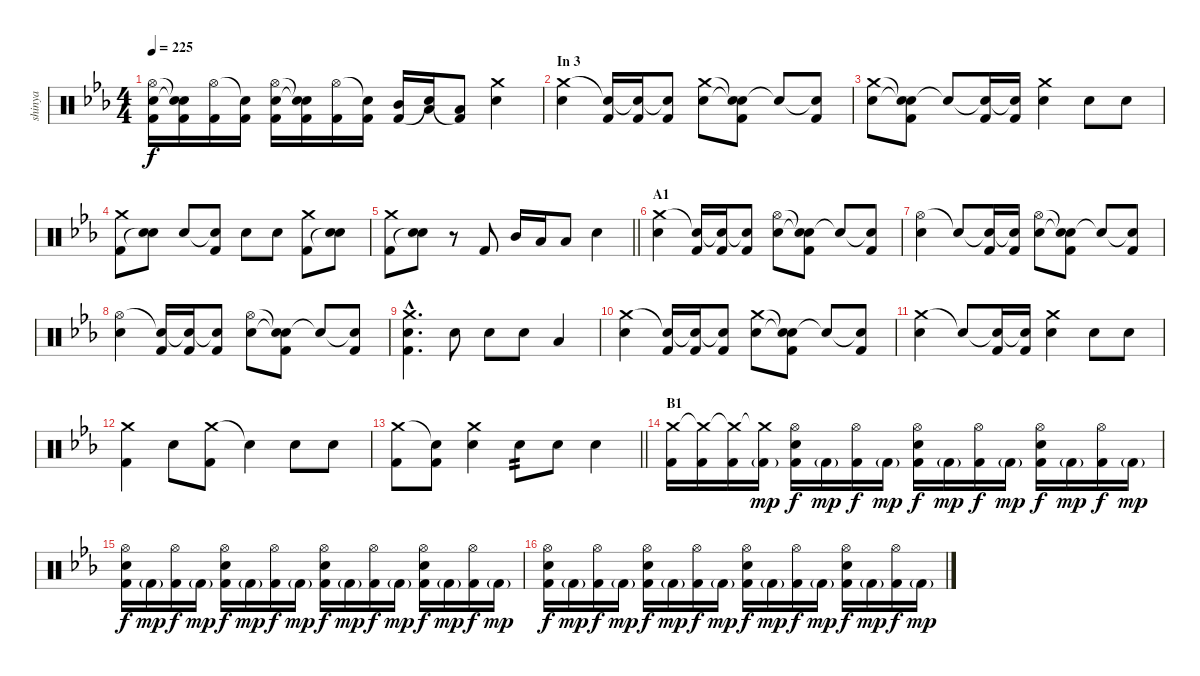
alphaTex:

\track ("shinya" "shinya") {instrument percussion}
\staff {score}
\articulation defaults
\ts (4 4)
\tempo 225
\clef neutral
\ks eb
("Hi-Hat (open)" "Electric Snare (hit)" "Kick (hit) 2").16{dy f} ("Snare (hit)"{t} "Snare (hit)"{t} "Kick (hit) 2").16 ("Hi-Hat (open)" "Kick (hit) 2").16 ("Snare (hit)"{t} "Kick (hit) 2").16 ("Hi-Hat (open)" "Electric Snare (hit)" "Kick (hit) 2").16 ("Snare (hit)"{t} "Snare (hit)"{t} "Kick (hit) 2").16 ("Hi-Hat (open)" "Kick (hit) 2").16 ("Snare (hit)"{t} "Kick (hit) 2").16 ("Mid Tom (hit)" "Kick (hit) 2").16 ("Low Tom (hit)" "Snare (hit)"{t}).16 ("Low Floor Tom (hit)" "Kick (hit) 2"{t}).8 ("Crash medium (hit)" "Electric Snare (hit)").4 |
\section ("" "In 3")
("Crash medium (hit)" "Electric Snare (hit)").4 ("Snare (hit)"{t} "Kick (hit) 2").16 ("Snare (hit)"{t} "Kick (hit) 2").16 ("Snare (hit)"{t} "Kick (hit) 2").8 ("Crash medium (hit)" "Electric Snare (hit)").8 ("Snare (hit)"{t} "Snare (hit)"{t} "Kick (hit) 2").8 "Snare (hit)"{t}.8 ("Snare (hit)"{t} "Kick (hit) 2").8 |
("Crash medium (hit)" "Electric Snare (hit)").8 ("Snare (hit)"{t} "Snare (hit)"{t} "Kick (hit) 2").8 "Snare (hit)"{t}.8 ("Snare (hit)"{t} "Kick (hit) 2").16 ("Snare (hit)"{t} "Kick (hit) 2").16 ("Crash medium (hit)" "Electric Snare (hit)").4 "Electric Snare (hit)".8 "Electric Snare (hit)".8 |
("Crash medium (hit)" "Kick (hit) 2").8 ("Electric Snare (hit)" "Snare (hit)"{t}).8 "Electric Snare (hit)".8 ("Snare (hit)"{t} "Kick (hit) 2").8 "Electric Snare (hit)".8 "Electric Snare (hit)".8 ("Crash medium (hit)" "Kick (hit) 2").8 ("Electric Snare (hit)" "Snare (hit)"{t}).8 |
\barLineRight lightlight
("Crash medium (hit)" "Kick (hit) 2").8 ("Electric Snare (hit)" "Snare (hit)"{t}).8 r.8 "Kick (hit) 2".8 "Mid Tom (hit)".16 "Low Tom (hit)".16 "Low Floor Tom (hit)".8 "Electric Snare (hit)".4 |
\section ("" "A1")
("Crash medium (hit)" "Electric Snare (hit)").4 ("Snare (hit)"{t} "Kick (hit) 2").16 ("Snare (hit)"{t} "Kick (hit) 2").16 ("Snare (hit)"{t} "Kick (hit) 2").8 ("Hi-Hat (open)" "Electric Snare (hit)").8 ("Snare (hit)"{t} "Snare (hit)"{t} "Kick (hit) 2").8 "Snare (hit)"{t}.8 ("Snare (hit)"{t} "Kick (hit) 2").8 |
("Hi-Hat (open)" "Electric Snare (hit)").4 "Snare (hit)"{t}.8 ("Snare (hit)"{t} "Kick (hit) 2").16 ("Snare (hit)"{t} "Kick (hit) 2").16 ("Hi-Hat (open)" "Electric Snare (hit)").8 ("Snare (hit)"{t} "Snare (hit)"{t} "Kick (hit) 2").8 "Snare (hit)"{t}.8 ("Snare (hit)"{t} "Kick (hit) 2").8 |
("Hi-Hat (open)" "Electric Snare (hit)").4 ("Snare (hit)"{t} "Kick (hit) 2").16 ("Snare (hit)"{t} "Kick (hit) 2").16 ("Snare (hit)"{t} "Kick (hit) 2").8 ("Hi-Hat (open)" "Electric Snare (hit)").8 ("Snare (hit)"{t} "Snare (hit)"{t} "Kick (hit) 2").8 "Snare (hit)"{t}.8 ("Snare (hit)"{t} "Kick (hit) 2").8 |
("Crash medium (hit)"{hac} "Electric Snare (hit)"{hac} "Kick (hit) 2"{hac}).4{d} "Electric Snare (hit)".8 "Electric Snare (hit)".8 "Electric Snare (hit)".8 "Low Floor Tom (hit)".4 |
("Crash medium (hit)" "Electric Snare (hit)").4 ("Snare (hit)"{t} "Kick (hit) 2").16 ("Snare (hit)"{t} "Kick (hit) 2").16 ("Snare (hit)"{t} "Kick (hit) 2").8 ("Crash medium (hit)" "Electric Snare (hit)").8 ("Snare (hit)"{t} "Snare (hit)"{t} "Kick (hit) 2").8 "Snare (hit)"{t}.8 ("Snare (hit)"{t} "Kick (hit) 2").8 |
("Crash medium (hit)" "Electric Snare (hit)").4 "Snare (hit)"{t}.8 ("Snare (hit)"{t} "Kick (hit) 2").16 ("Snare (hit)"{t} "Kick (hit) 2").16 ("Crash medium (hit)" "Electric Snare (hit)").4 "Electric Snare (hit)".8 "Electric Snare (hit)".8 |
("Crash medium (hit)" "Kick (hit) 2").4 "Electric Snare (hit)".8 ("Crash medium (hit)" "Kick (hit) 2").8 "Snare (hit)"{t}.4 "Electric Snare (hit)".8 "Electric Snare (hit)".8 |
\barLineRight lightlight
("Crash medium (hit)" "Kick (hit) 2").8 ("Snare (hit)"{t} "Kick (hit) 2").8 ("Crash medium (hit)" "Electric Snare (hit)").4 "Electric Snare (hit)".8{tp 2} "Electric Snare (hit)".8 "Electric Snare (hit)".4 |
\section ("" "B1")
("Crash medium (hit)" "Kick (hit) 2").16 ("Crash medium (hit)"{t} "Kick (hit) 2").16 ("Crash medium (hit)"{t} "Kick (hit) 2").16 ("Crash medium (hit)"{t} "Kick (hit) 2"{g}).16{dy mp} ("Hi-Hat (open)" "Electric Snare (hit)" "Kick (hit) 2").16{dy f} "Kick (hit) 2"{g}.16{dy mp} ("Hi-Hat (open)" "Kick (hit) 2").16{dy f} "Kick (hit) 2"{g}.16{dy mp} ("Hi-Hat (open)" "Electric Snare (hit)" "Kick (hit) 2").16{dy f} "Kick (hit) 2"{g}.16{dy mp} ("Hi-Hat (open)" "Kick (hit) 2").16{dy f} "Kick (hit) 2"{g}.16{dy mp} ("Hi-Hat (open)" "Electric Snare (hit)" "Kick (hit) 2").16{dy f} "Kick (hit) 2"{g}.16{dy mp} ("Hi-Hat (open)" "Kick (hit) 2").16{dy f} "Kick (hit) 2"{g}.16{dy mp} |
("Hi-Hat (open)" "Electric Snare (hit)" "Kick (hit) 2").16{dy f} "Kick (hit) 2"{g}.16{dy mp} ("Hi-Hat (open)" "Kick (hit) 2").16{dy f} "Kick (hit) 2"{g}.16{dy mp} ("Hi-Hat (open)" "Electric Snare (hit)" "Kick (hit) 2").16{dy f} "Kick (hit) 2"{g}.16{dy mp} ("Hi-Hat (open)" "Kick (hit) 2").16{dy f} "Kick (hit) 2"{g}.16{dy mp} ("Hi-Hat (open)" "Electric Snare (hit)" "Kick (hit) 2").16{dy f} "Kick (hit) 2"{g}.16{dy mp} ("Hi-Hat (open)" "Kick (hit) 2").16{dy f} "Kick (hit) 2"{g}.16{dy mp} ("Hi-Hat (open)" "Electric Snare (hit)" "Kick (hit) 2").16{dy f} "Kick (hit) 2"{g}.16{dy mp} ("Hi-Hat (open)" "Kick (hit) 2").16{dy f} "Kick (hit) 2"{g}.16{dy mp} |
("Hi-Hat (open)" "Electric Snare (hit)" "Kick (hit) 2").16{dy f} "Kick (hit) 2"{g}.16{dy mp} ("Hi-Hat (open)" "Kick (hit) 2").16{dy f} "Kick (hit) 2"{g}.16{dy mp} ("Hi-Hat (open)" "Electric Snare (hit)" "Kick (hit) 2").16{dy f} "Kick (hit) 2"{g}.16{dy mp} ("Hi-Hat (open)" "Kick (hit) 2").16{dy f} "Kick (hit) 2"{g}.16{dy mp} ("Hi-Hat (open)" "Electric Snare (hit)" "Kick (hit) 2").16{dy f} "Kick (hit) 2"{g}.16{dy mp} ("Hi-Hat (open)" "Kick (hit) 2").16{dy f} "Kick (hit) 2"{g}.16{dy mp} ("Hi-Hat (open)" "Electric Snare (hit)" "Kick (hit) 2").16{dy f} "Kick (hit) 2"{g}.16{dy mp} ("Hi-Hat (open)" "Kick (hit) 2").16{dy f} "Kick (hit) 2"{g}.16{dy mp}
